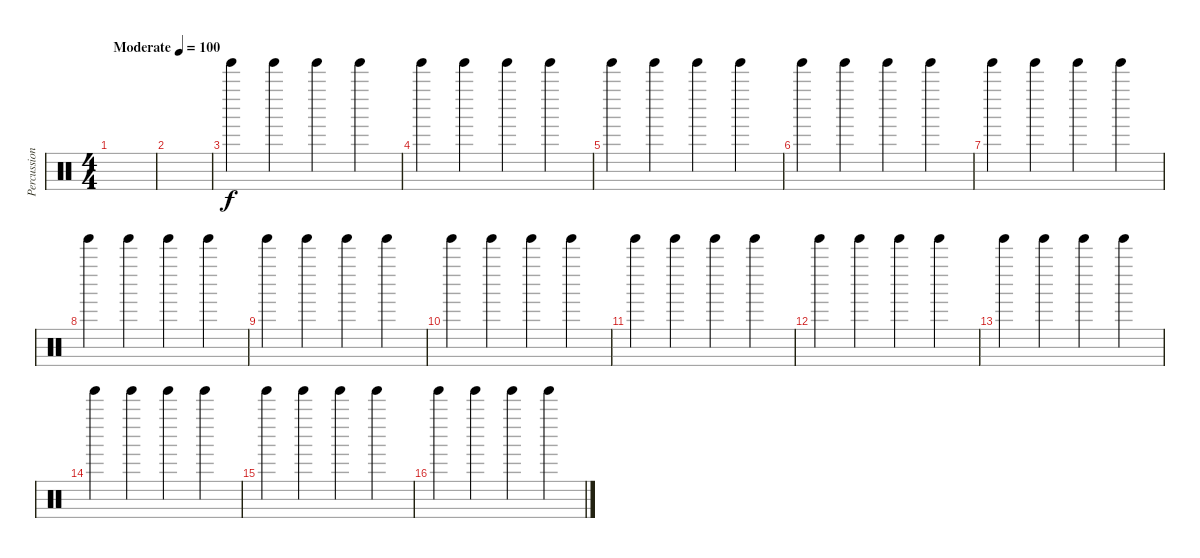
\track ("Percussion" "Percussion") {instrument percussion}
\staff {score}
\articulation defaults
\ts (4 4)
\tempo (100 "Moderate")
\clef neutral
\ks c
|
|
"Tinkle Bell (hit)".4 "Tinkle Bell (hit)".4 "Tinkle Bell (hit)".4 "Tinkle Bell (hit)".4 |
"Tinkle Bell (hit)".4 "Tinkle Bell (hit)".4 "Tinkle Bell (hit)".4 "Tinkle Bell (hit)".4 |
"Tinkle Bell (hit)".4 "Tinkle Bell (hit)".4 "Tinkle Bell (hit)".4 "Tinkle Bell (hit)".4 |
"Tinkle Bell (hit)".4 "Tinkle Bell (hit)".4 "Tinkle Bell (hit)".4 "Tinkle Bell (hit)".4 |
"Tinkle Bell (hit)".4 "Tinkle Bell (hit)".4 "Tinkle Bell (hit)".4 "Tinkle Bell (hit)".4 |
"Tinkle Bell (hit)".4 "Tinkle Bell (hit)".4 "Tinkle Bell (hit)".4 "Tinkle Bell (hit)".4 |
"Tinkle Bell (hit)".4 "Tinkle Bell (hit)".4 "Tinkle Bell (hit)".4 "Tinkle Bell (hit)".4 |
"Tinkle Bell (hit)".4 "Tinkle Bell (hit)".4 "Tinkle Bell (hit)".4 "Tinkle Bell (hit)".4 |
"Tinkle Bell (hit)".4 "Tinkle Bell (hit)".4 "Tinkle Bell (hit)".4 "Tinkle Bell (hit)".4 |
"Tinkle Bell (hit)".4 "Tinkle Bell (hit)".4 "Tinkle Bell (hit)".4 "Tinkle Bell (hit)".4 |
"Tinkle Bell (hit)".4 "Tinkle Bell (hit)".4 "Tinkle Bell (hit)".4 "Tinkle Bell (hit)".4 |
"Tinkle Bell (hit)".4 "Tinkle Bell (hit)".4 "Tinkle Bell (hit)".4 "Tinkle Bell (hit)".4 |
"Tinkle Bell (hit)".4 "Tinkle Bell (hit)".4 "Tinkle Bell (hit)".4 "Tinkle Bell (hit)".4 |
"Tinkle Bell (hit)".4 "Tinkle Bell (hit)".4 "Tinkle Bell (hit)".4 "Tinkle Bell (hit)".4
